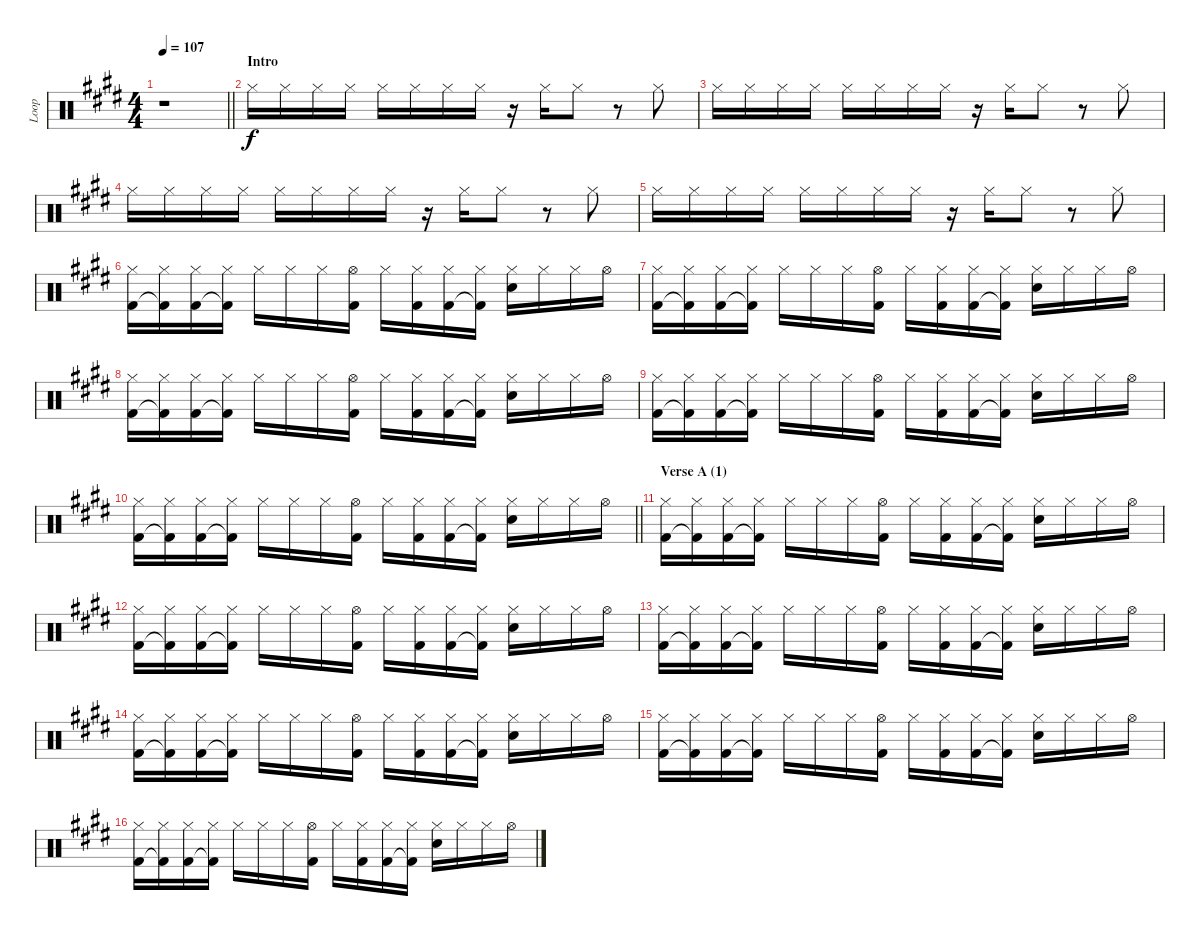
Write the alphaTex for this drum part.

\track ("Loop" "Loop") {instrument percussion}
\staff {score}
\articulation defaults
\ts (4 4)
\tempo 107
\clef neutral
\barLineRight lightlight
\ks e
r.1{dy f} |
\section ("" "Intro")
"Hi-Hat (closed)".16 "Hi-Hat (closed)".16 "Hi-Hat (closed)".16 "Hi-Hat (closed)".16 "Hi-Hat (closed)".16 "Hi-Hat (closed)".16 "Hi-Hat (closed)".16 "Hi-Hat (closed)".16 r.16 "Hi-Hat (closed)".16 "Hi-Hat (closed)".8 r.8 "Hi-Hat (closed)".8 |
"Hi-Hat (closed)".16 "Hi-Hat (closed)".16 "Hi-Hat (closed)".16 "Hi-Hat (closed)".16 "Hi-Hat (closed)".16 "Hi-Hat (closed)".16 "Hi-Hat (closed)".16 "Hi-Hat (closed)".16 r.16 "Hi-Hat (closed)".16 "Hi-Hat (closed)".8 r.8 "Hi-Hat (closed)".8 |
"Hi-Hat (closed)".16 "Hi-Hat (closed)".16 "Hi-Hat (closed)".16 "Hi-Hat (closed)".16 "Hi-Hat (closed)".16 "Hi-Hat (closed)".16 "Hi-Hat (closed)".16 "Hi-Hat (closed)".16 r.16 "Hi-Hat (closed)".16 "Hi-Hat (closed)".8 r.8 "Hi-Hat (closed)".8 |
"Hi-Hat (closed)".16 "Hi-Hat (closed)".16 "Hi-Hat (closed)".16 "Hi-Hat (closed)".16 "Hi-Hat (closed)".16 "Hi-Hat (closed)".16 "Hi-Hat (closed)".16 "Hi-Hat (closed)".16 r.16 "Hi-Hat (closed)".16 "Hi-Hat (closed)".8 r.8 "Hi-Hat (closed)".8 |
("Hi-Hat (closed)" "Kick (hit) 2").16 ("Hi-Hat (closed)" "Kick (hit) 2"{t}).16 ("Hi-Hat (closed)" "Kick (hit) 2").16 ("Hi-Hat (closed)" "Kick (hit) 2"{t}).16 "Hi-Hat (closed)".16 "Hi-Hat (closed)".16 "Hi-Hat (closed)".16 ("Hi-Hat (open)" "Kick (hit) 2").16 "Hi-Hat (closed)".16 ("Hi-Hat (closed)" "Kick (hit) 2").16 ("Hi-Hat (closed)" "Kick (hit) 2").16 ("Hi-Hat (closed)" "Kick (hit) 2"{t}).16 ("Hi-Hat (closed)" "Electric Snare (hit)").16 "Hi-Hat (closed)".16 "Hi-Hat (closed)".16 "Hi-Hat (open)".16 |
("Hi-Hat (closed)" "Kick (hit) 2").16 ("Hi-Hat (closed)" "Kick (hit) 2"{t}).16 ("Hi-Hat (closed)" "Kick (hit) 2").16 ("Hi-Hat (closed)" "Kick (hit) 2"{t}).16 "Hi-Hat (closed)".16 "Hi-Hat (closed)".16 "Hi-Hat (closed)".16 ("Hi-Hat (open)" "Kick (hit) 2").16 "Hi-Hat (closed)".16 ("Hi-Hat (closed)" "Kick (hit) 2").16 ("Hi-Hat (closed)" "Kick (hit) 2").16 ("Hi-Hat (closed)" "Kick (hit) 2"{t}).16 ("Hi-Hat (closed)" "Electric Snare (hit)").16 "Hi-Hat (closed)".16 "Hi-Hat (closed)".16 "Hi-Hat (open)".16 |
("Hi-Hat (closed)" "Kick (hit) 2").16 ("Hi-Hat (closed)" "Kick (hit) 2"{t}).16 ("Hi-Hat (closed)" "Kick (hit) 2").16 ("Hi-Hat (closed)" "Kick (hit) 2"{t}).16 "Hi-Hat (closed)".16 "Hi-Hat (closed)".16 "Hi-Hat (closed)".16 ("Hi-Hat (open)" "Kick (hit) 2").16 "Hi-Hat (closed)".16 ("Hi-Hat (closed)" "Kick (hit) 2").16 ("Hi-Hat (closed)" "Kick (hit) 2").16 ("Hi-Hat (closed)" "Kick (hit) 2"{t}).16 ("Hi-Hat (closed)" "Electric Snare (hit)").16 "Hi-Hat (closed)".16 "Hi-Hat (closed)".16 "Hi-Hat (open)".16 |
("Hi-Hat (closed)" "Kick (hit) 2").16 ("Hi-Hat (closed)" "Kick (hit) 2"{t}).16 ("Hi-Hat (closed)" "Kick (hit) 2").16 ("Hi-Hat (closed)" "Kick (hit) 2"{t}).16 "Hi-Hat (closed)".16 "Hi-Hat (closed)".16 "Hi-Hat (closed)".16 ("Hi-Hat (open)" "Kick (hit) 2").16 "Hi-Hat (closed)".16 ("Hi-Hat (closed)" "Kick (hit) 2").16 ("Hi-Hat (closed)" "Kick (hit) 2").16 ("Hi-Hat (closed)" "Kick (hit) 2"{t}).16 ("Hi-Hat (closed)" "Electric Snare (hit)").16 "Hi-Hat (closed)".16 "Hi-Hat (closed)".16 "Hi-Hat (open)".16 |
\barLineRight lightlight
("Hi-Hat (closed)" "Kick (hit) 2").16 ("Hi-Hat (closed)" "Kick (hit) 2"{t}).16 ("Hi-Hat (closed)" "Kick (hit) 2").16 ("Hi-Hat (closed)" "Kick (hit) 2"{t}).16 "Hi-Hat (closed)".16 "Hi-Hat (closed)".16 "Hi-Hat (closed)".16 ("Hi-Hat (open)" "Kick (hit) 2").16 "Hi-Hat (closed)".16 ("Hi-Hat (closed)" "Kick (hit) 2").16 ("Hi-Hat (closed)" "Kick (hit) 2").16 ("Hi-Hat (closed)" "Kick (hit) 2"{t}).16 ("Hi-Hat (closed)" "Electric Snare (hit)").16 "Hi-Hat (closed)".16 "Hi-Hat (closed)".16 "Hi-Hat (open)".16 |
\section ("" "Verse A (1)")
("Hi-Hat (closed)" "Kick (hit) 2").16 ("Hi-Hat (closed)" "Kick (hit) 2"{t}).16 ("Hi-Hat (closed)" "Kick (hit) 2").16 ("Hi-Hat (closed)" "Kick (hit) 2"{t}).16 "Hi-Hat (closed)".16 "Hi-Hat (closed)".16 "Hi-Hat (closed)".16 ("Hi-Hat (open)" "Kick (hit) 2").16 "Hi-Hat (closed)".16 ("Hi-Hat (closed)" "Kick (hit) 2").16 ("Hi-Hat (closed)" "Kick (hit) 2").16 ("Hi-Hat (closed)" "Kick (hit) 2"{t}).16 ("Hi-Hat (closed)" "Electric Snare (hit)").16 "Hi-Hat (closed)".16 "Hi-Hat (closed)".16 "Hi-Hat (open)".16 |
("Hi-Hat (closed)" "Kick (hit) 2").16 ("Hi-Hat (closed)" "Kick (hit) 2"{t}).16 ("Hi-Hat (closed)" "Kick (hit) 2").16 ("Hi-Hat (closed)" "Kick (hit) 2"{t}).16 "Hi-Hat (closed)".16 "Hi-Hat (closed)".16 "Hi-Hat (closed)".16 ("Hi-Hat (open)" "Kick (hit) 2").16 "Hi-Hat (closed)".16 ("Hi-Hat (closed)" "Kick (hit) 2").16 ("Hi-Hat (closed)" "Kick (hit) 2").16 ("Hi-Hat (closed)" "Kick (hit) 2"{t}).16 ("Hi-Hat (closed)" "Electric Snare (hit)").16 "Hi-Hat (closed)".16 "Hi-Hat (closed)".16 "Hi-Hat (open)".16 |
("Hi-Hat (closed)" "Kick (hit) 2").16 ("Hi-Hat (closed)" "Kick (hit) 2"{t}).16 ("Hi-Hat (closed)" "Kick (hit) 2").16 ("Hi-Hat (closed)" "Kick (hit) 2"{t}).16 "Hi-Hat (closed)".16 "Hi-Hat (closed)".16 "Hi-Hat (closed)".16 ("Hi-Hat (open)" "Kick (hit) 2").16 "Hi-Hat (closed)".16 ("Hi-Hat (closed)" "Kick (hit) 2").16 ("Hi-Hat (closed)" "Kick (hit) 2").16 ("Hi-Hat (closed)" "Kick (hit) 2"{t}).16 ("Hi-Hat (closed)" "Electric Snare (hit)").16 "Hi-Hat (closed)".16 "Hi-Hat (closed)".16 "Hi-Hat (open)".16 |
("Hi-Hat (closed)" "Kick (hit) 2").16 ("Hi-Hat (closed)" "Kick (hit) 2"{t}).16 ("Hi-Hat (closed)" "Kick (hit) 2").16 ("Hi-Hat (closed)" "Kick (hit) 2"{t}).16 "Hi-Hat (closed)".16 "Hi-Hat (closed)".16 "Hi-Hat (closed)".16 ("Hi-Hat (open)" "Kick (hit) 2").16 "Hi-Hat (closed)".16 ("Hi-Hat (closed)" "Kick (hit) 2").16 ("Hi-Hat (closed)" "Kick (hit) 2").16 ("Hi-Hat (closed)" "Kick (hit) 2"{t}).16 ("Hi-Hat (closed)" "Electric Snare (hit)").16 "Hi-Hat (closed)".16 "Hi-Hat (closed)".16 "Hi-Hat (open)".16 |
("Hi-Hat (closed)" "Kick (hit) 2").16 ("Hi-Hat (closed)" "Kick (hit) 2"{t}).16 ("Hi-Hat (closed)" "Kick (hit) 2").16 ("Hi-Hat (closed)" "Kick (hit) 2"{t}).16 "Hi-Hat (closed)".16 "Hi-Hat (closed)".16 "Hi-Hat (closed)".16 ("Hi-Hat (open)" "Kick (hit) 2").16 "Hi-Hat (closed)".16 ("Hi-Hat (closed)" "Kick (hit) 2").16 ("Hi-Hat (closed)" "Kick (hit) 2").16 ("Hi-Hat (closed)" "Kick (hit) 2"{t}).16 ("Hi-Hat (closed)" "Electric Snare (hit)").16 "Hi-Hat (closed)".16 "Hi-Hat (closed)".16 "Hi-Hat (open)".16 |
("Hi-Hat (closed)" "Kick (hit) 2").16 ("Hi-Hat (closed)" "Kick (hit) 2"{t}).16 ("Hi-Hat (closed)" "Kick (hit) 2").16 ("Hi-Hat (closed)" "Kick (hit) 2"{t}).16 "Hi-Hat (closed)".16 "Hi-Hat (closed)".16 "Hi-Hat (closed)".16 ("Hi-Hat (open)" "Kick (hit) 2").16 "Hi-Hat (closed)".16 ("Hi-Hat (closed)" "Kick (hit) 2").16 ("Hi-Hat (closed)" "Kick (hit) 2").16 ("Hi-Hat (closed)" "Kick (hit) 2"{t}).16 ("Hi-Hat (closed)" "Electric Snare (hit)").16 "Hi-Hat (closed)".16 "Hi-Hat (closed)".16 "Hi-Hat (open)".16
